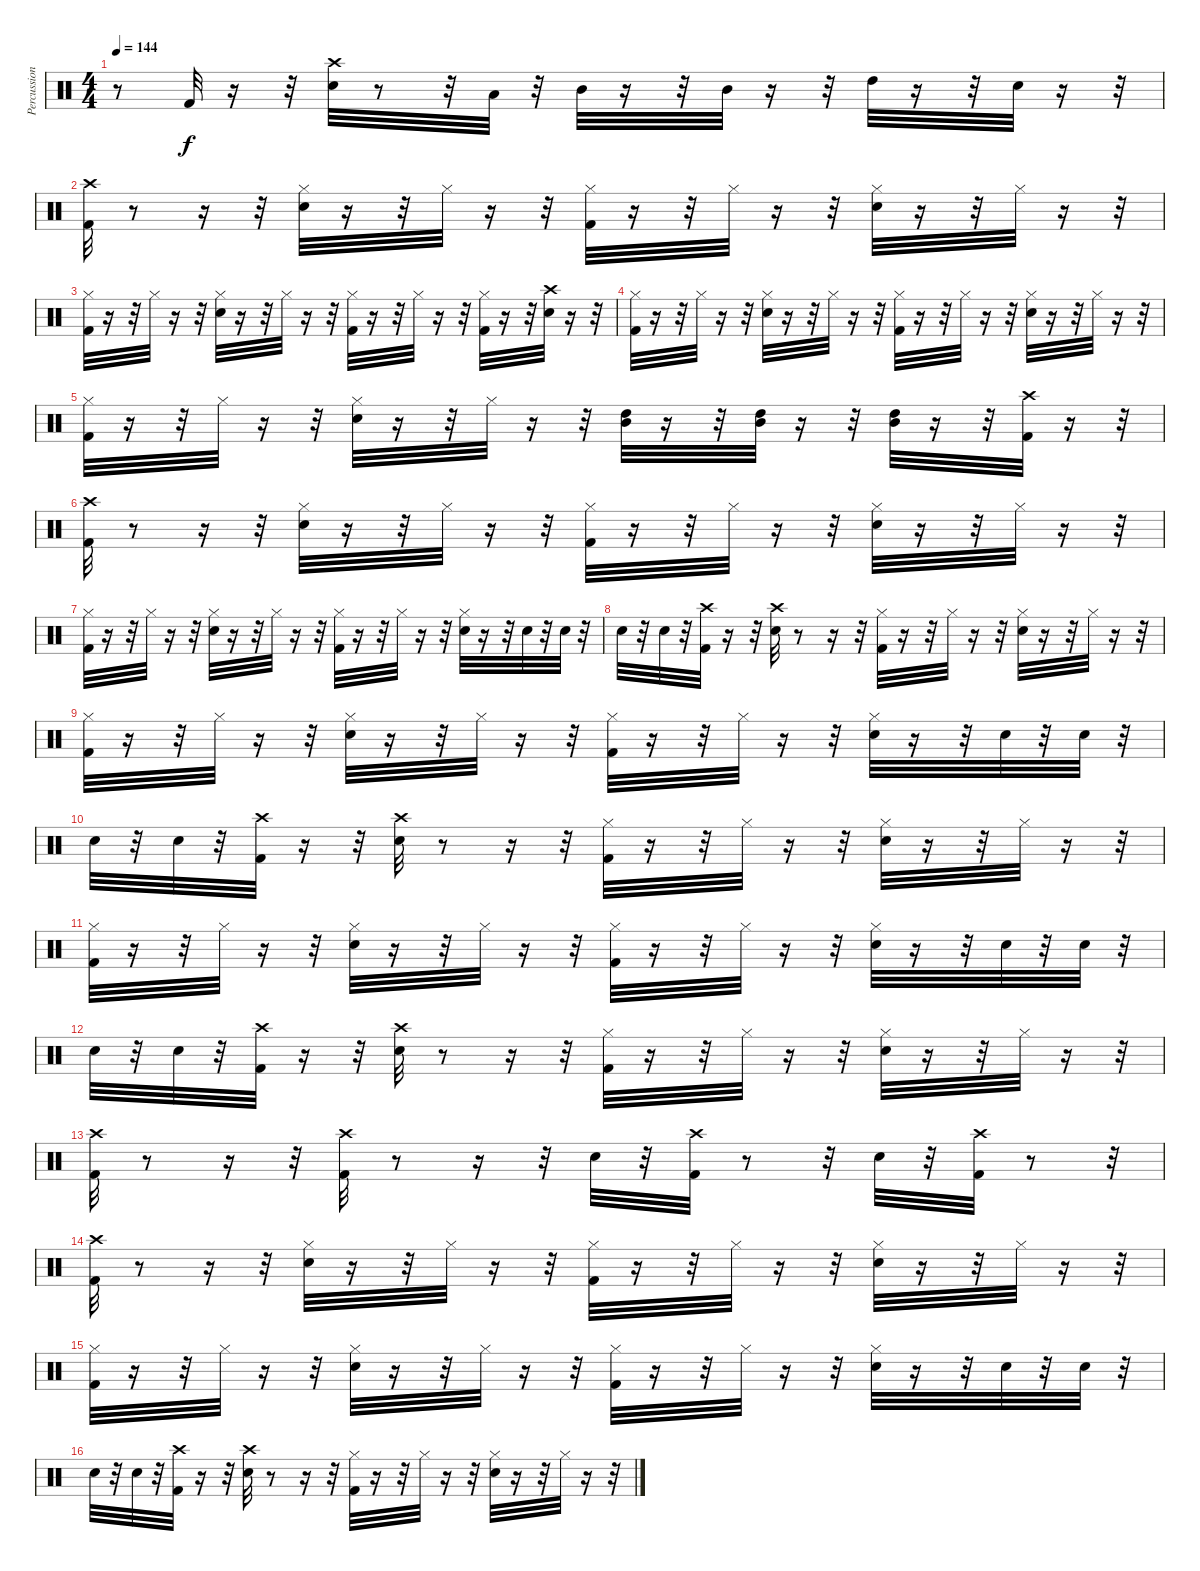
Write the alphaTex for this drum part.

\track ("Percussion" "Percussion") {instrument percussion}
\staff {score}
\articulation defaults
\ts (4 4)
\tempo 144
\clef neutral
\ks c
r.8{dy f} "Kick (hit) 2".32 r.16 r.32 ("Crash high (hit)" "Snare (hit) 2").32 r.8 r.32 "Low Tom (hit)".32 r.32 "Mid Tom (hit)".32 r.16 r.32 "Mid Tom (hit)".32 r.16 r.32 "High Tom (hit)".32 r.16 r.32 "Snare (hit) 2".32 r.16 r.32 |
("Kick (hit) 2" "Crash high (hit)").32 r.8 r.16 r.32 ("Hi-Hat (closed)" "Snare (hit) 2").32 r.16 r.32 "Hi-Hat (closed)".32 r.16 r.32 ("Hi-Hat (closed)" "Kick (hit) 2").32 r.16 r.32 "Hi-Hat (closed)".32 r.16 r.32 ("Snare (hit) 2" "Hi-Hat (closed)").32 r.16 r.32 "Hi-Hat (closed)".32 r.16 r.32 |
("Kick (hit) 2" "Hi-Hat (closed)").32 r.16 r.32 "Hi-Hat (closed)".32 r.16 r.32 ("Snare (hit) 2" "Hi-Hat (closed)").32 r.16 r.32 "Hi-Hat (closed)".32 r.16 r.32 ("Kick (hit) 2" "Hi-Hat (closed)").32 r.16 r.32 "Hi-Hat (closed)".32 r.16 r.32 ("Kick (hit) 2" "Hi-Hat (closed)").32 r.16 r.32 ("Snare (hit) 2" "Crash high (hit)").32 r.16 r.32 |
("Kick (hit) 2" "Hi-Hat (closed)").32 r.16 r.32 "Hi-Hat (closed)".32 r.16 r.32 ("Snare (hit) 2" "Hi-Hat (closed)").32 r.16 r.32 "Hi-Hat (closed)".32 r.16 r.32 ("Kick (hit) 2" "Hi-Hat (closed)").32 r.16 r.32 "Hi-Hat (closed)".32 r.16 r.32 ("Snare (hit) 2" "Hi-Hat (closed)").32 r.16 r.32 "Hi-Hat (closed)".32 r.16 r.32 |
("Kick (hit) 2" "Hi-Hat (closed)").32 r.16 r.32 "Hi-Hat (closed)".32 r.16 r.32 ("Snare (hit) 2" "Hi-Hat (closed)").32 r.16 r.32 "Hi-Hat (closed)".32 r.16 r.32 ("High Tom (hit)" "Mid Tom (hit)").32 r.16 r.32 ("Mid Tom (hit)" "High Tom (hit)").32 r.16 r.32 ("Mid Tom (hit)" "High Tom (hit)").32 r.16 r.32 ("Kick (hit) 2" "Crash high (hit)").32 r.16 r.32 |
("Kick (hit) 2" "Crash high (hit)").32 r.8 r.16 r.32 ("Hi-Hat (closed)" "Snare (hit) 2").32 r.16 r.32 "Hi-Hat (closed)".32 r.16 r.32 ("Kick (hit) 2" "Hi-Hat (closed)").32 r.16 r.32 "Hi-Hat (closed)".32 r.16 r.32 ("Snare (hit) 2" "Hi-Hat (closed)").32 r.16 r.32 "Hi-Hat (closed)".32 r.16 r.32 |
("Hi-Hat (closed)" "Kick (hit) 2").32 r.16 r.32 "Hi-Hat (closed)".32 r.16 r.32 ("Snare (hit) 2" "Hi-Hat (closed)").32 r.16 r.32 "Hi-Hat (closed)".32 r.16 r.32 ("Hi-Hat (closed)" "Kick (hit) 2").32 r.16 r.32 "Hi-Hat (closed)".32 r.16 r.32 ("Snare (hit) 2" "Hi-Hat (closed)").32 r.16 r.32 "Snare (hit) 2".32 r.32 "Snare (hit) 2".32 r.32 |
"Snare (hit) 2".32 r.32 "Snare (hit) 2".32 r.32 ("Crash high (hit)" "Kick (hit) 2").32 r.16 r.32 ("Snare (hit) 2" "Crash high (hit)").32 r.8 r.16 r.32 ("Hi-Hat (closed)" "Kick (hit) 2").32 r.16 r.32 "Hi-Hat (closed)".32 r.16 r.32 ("Snare (hit) 2" "Hi-Hat (closed)").32 r.16 r.32 "Hi-Hat (closed)".32 r.16 r.32 |
("Kick (hit) 2" "Hi-Hat (closed)").32 r.16 r.32 "Hi-Hat (closed)".32 r.16 r.32 ("Snare (hit) 2" "Hi-Hat (closed)").32 r.16 r.32 "Hi-Hat (closed)".32 r.16 r.32 ("Kick (hit) 2" "Hi-Hat (closed)").32 r.16 r.32 "Hi-Hat (closed)".32 r.16 r.32 ("Snare (hit) 2" "Hi-Hat (closed)").32 r.16 r.32 "Snare (hit) 2".32 r.32 "Snare (hit) 2".32 r.32 |
"Snare (hit) 2".32 r.32 "Snare (hit) 2".32 r.32 ("Kick (hit) 2" "Crash high (hit)").32 r.16 r.32 ("Snare (hit) 2" "Crash high (hit)").32 r.8 r.16 r.32 ("Kick (hit) 2" "Hi-Hat (closed)").32 r.16 r.32 "Hi-Hat (closed)".32 r.16 r.32 ("Snare (hit) 2" "Hi-Hat (closed)").32 r.16 r.32 "Hi-Hat (closed)".32 r.16 r.32 |
("Kick (hit) 2" "Hi-Hat (closed)").32 r.16 r.32 "Hi-Hat (closed)".32 r.16 r.32 ("Snare (hit) 2" "Hi-Hat (closed)").32 r.16 r.32 "Hi-Hat (closed)".32 r.16 r.32 ("Kick (hit) 2" "Hi-Hat (closed)").32 r.16 r.32 "Hi-Hat (closed)".32 r.16 r.32 ("Snare (hit) 2" "Hi-Hat (closed)").32 r.16 r.32 "Snare (hit) 2".32 r.32 "Snare (hit) 2".32 r.32 |
"Snare (hit) 2".32 r.32 "Snare (hit) 2".32 r.32 ("Crash high (hit)" "Kick (hit) 2").32 r.16 r.32 ("Crash high (hit)" "Snare (hit) 2").32 r.8 r.16 r.32 ("Kick (hit) 2" "Hi-Hat (closed)").32 r.16 r.32 "Hi-Hat (closed)".32 r.16 r.32 ("Snare (hit) 2" "Hi-Hat (closed)").32 r.16 r.32 "Hi-Hat (closed)".32 r.16 r.32 |
("Kick (hit) 2" "Crash high (hit)").32 r.8 r.16 r.32 ("Kick (hit) 2" "Crash high (hit)").32 r.8 r.16 r.32 "Snare (hit) 2".32 r.32 ("Kick (hit) 2" "Crash high (hit)").32 r.8 r.32 "Snare (hit) 2".32 r.32 ("Kick (hit) 2" "Crash high (hit)").32 r.8 r.32 |
("Kick (hit) 2" "Crash high (hit)").32 r.8 r.16 r.32 ("Hi-Hat (closed)" "Snare (hit) 2").32 r.16 r.32 "Hi-Hat (closed)".32 r.16 r.32 ("Kick (hit) 2" "Hi-Hat (closed)").32 r.16 r.32 "Hi-Hat (closed)".32 r.16 r.32 ("Snare (hit) 2" "Hi-Hat (closed)").32 r.16 r.32 "Hi-Hat (closed)".32 r.16 r.32 |
("Hi-Hat (closed)" "Kick (hit) 2").32 r.16 r.32 "Hi-Hat (closed)".32 r.16 r.32 ("Snare (hit) 2" "Hi-Hat (closed)").32 r.16 r.32 "Hi-Hat (closed)".32 r.16 r.32 ("Hi-Hat (closed)" "Kick (hit) 2").32 r.16 r.32 "Hi-Hat (closed)".32 r.16 r.32 ("Snare (hit) 2" "Hi-Hat (closed)").32 r.16 r.32 "Snare (hit) 2".32 r.32 "Snare (hit) 2".32 r.32 |
"Snare (hit) 2".32 r.32 "Snare (hit) 2".32 r.32 ("Crash high (hit)" "Kick (hit) 2").32 r.16 r.32 ("Snare (hit) 2" "Crash high (hit)").32 r.8 r.16 r.32 ("Hi-Hat (closed)" "Kick (hit) 2").32 r.16 r.32 "Hi-Hat (closed)".32 r.16 r.32 ("Snare (hit) 2" "Hi-Hat (closed)").32 r.16 r.32 "Hi-Hat (closed)".32 r.16 r.32
